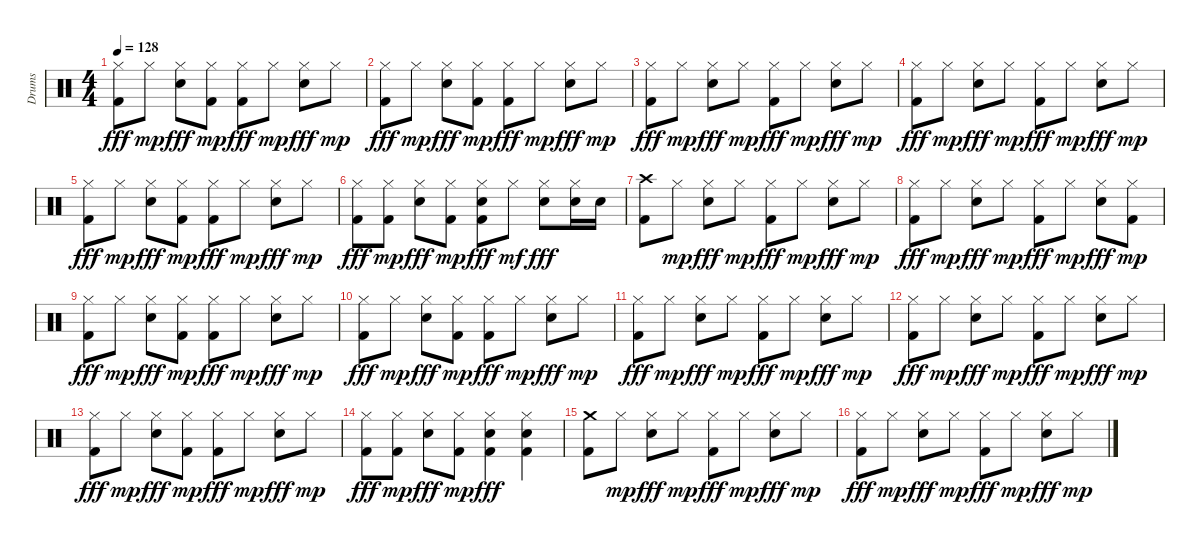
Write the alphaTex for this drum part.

\track ("Drums" "Drums") {instrument percussion}
\staff {score}
\articulation defaults
\ts (4 4)
\tempo 128
\clef neutral
\ks c
("Hi-Hat (closed)" "Kick (hit) 2").8{dy fff} "Hi-Hat (closed)".8{dy mp} ("Hi-Hat (closed)" "Snare (hit) 2").8{dy fff} ("Kick (hit) 2" "Hi-Hat (closed)").8{dy mp} ("Hi-Hat (closed)" "Kick (hit) 2").8{dy fff} "Hi-Hat (closed)".8{dy mp} ("Hi-Hat (closed)" "Snare (hit) 2").8{dy fff} "Hi-Hat (closed)".8{dy mp} |
("Hi-Hat (closed)" "Kick (hit) 2").8{dy fff} "Hi-Hat (closed)".8{dy mp} ("Hi-Hat (closed)" "Snare (hit) 2").8{dy fff} ("Kick (hit) 2" "Hi-Hat (closed)").8{dy mp} ("Hi-Hat (closed)" "Kick (hit) 2").8{dy fff} "Hi-Hat (closed)".8{dy mp} ("Hi-Hat (closed)" "Snare (hit) 2").8{dy fff} "Hi-Hat (closed)".8{dy mp} |
("Hi-Hat (closed)" "Kick (hit) 2").8{dy fff} "Hi-Hat (closed)".8{dy mp} ("Hi-Hat (closed)" "Snare (hit) 2").8{dy fff} "Hi-Hat (closed)".8{dy mp} ("Hi-Hat (closed)" "Kick (hit) 2").8{dy fff} "Hi-Hat (closed)".8{dy mp} ("Hi-Hat (closed)" "Snare (hit) 2").8{dy fff} "Hi-Hat (closed)".8{dy mp} |
("Hi-Hat (closed)" "Kick (hit) 2").8{dy fff} "Hi-Hat (closed)".8{dy mp} ("Hi-Hat (closed)" "Snare (hit) 2").8{dy fff} "Hi-Hat (closed)".8{dy mp} ("Hi-Hat (closed)" "Kick (hit) 2").8{dy fff} "Hi-Hat (closed)".8{dy mp} ("Hi-Hat (closed)" "Snare (hit) 2").8{dy fff} "Hi-Hat (closed)".8{dy mp} |
("Hi-Hat (closed)" "Kick (hit) 2").8{dy fff} "Hi-Hat (closed)".8{dy mp} ("Hi-Hat (closed)" "Snare (hit) 2").8{dy fff} ("Kick (hit) 2" "Hi-Hat (closed)").8{dy mp} ("Hi-Hat (closed)" "Kick (hit) 2").8{dy fff} "Hi-Hat (closed)".8{dy mp} ("Hi-Hat (closed)" "Snare (hit) 2").8{dy fff} "Hi-Hat (closed)".8{dy mp} |
("Hi-Hat (closed)" "Kick (hit) 2").8{dy fff} ("Kick (hit) 2" "Hi-Hat (closed)").8{dy mp} ("Hi-Hat (closed)" "Snare (hit) 2").8{dy fff} ("Kick (hit) 2" "Hi-Hat (closed)").8{dy mp} ("Hi-Hat (closed)" "Snare (hit) 2" "Kick (hit) 2").8{dy fff} "Hi-Hat (closed)".8{dy mf} ("Hi-Hat (closed)" "Snare (hit) 2").8{dy fff} ("Hi-Hat (closed)" "Snare (hit) 2").16 "Snare (hit) 2".16 |
("Crash high (hit)" "Kick (hit) 2").8 "Hi-Hat (closed)".8{dy mp} ("Hi-Hat (closed)" "Snare (hit) 2").8{dy fff} "Hi-Hat (closed)".8{dy mp} ("Hi-Hat (closed)" "Kick (hit) 2").8{dy fff} "Hi-Hat (closed)".8{dy mp} ("Hi-Hat (closed)" "Snare (hit) 2").8{dy fff} "Hi-Hat (closed)".8{dy mp} |
("Hi-Hat (closed)" "Kick (hit) 2").8{dy fff} "Hi-Hat (closed)".8{dy mp} ("Hi-Hat (closed)" "Snare (hit) 2").8{dy fff} "Hi-Hat (closed)".8{dy mp} ("Hi-Hat (closed)" "Kick (hit) 2").8{dy fff} "Hi-Hat (closed)".8{dy mp} ("Hi-Hat (closed)" "Snare (hit) 2").8{dy fff} ("Kick (hit) 2" "Hi-Hat (closed)").8{dy mp} |
("Hi-Hat (closed)" "Kick (hit) 2").8{dy fff} "Hi-Hat (closed)".8{dy mp} ("Hi-Hat (closed)" "Snare (hit) 2").8{dy fff} ("Kick (hit) 2" "Hi-Hat (closed)").8{dy mp} ("Hi-Hat (closed)" "Kick (hit) 2").8{dy fff} "Hi-Hat (closed)".8{dy mp} ("Hi-Hat (closed)" "Snare (hit) 2").8{dy fff} "Hi-Hat (closed)".8{dy mp} |
("Hi-Hat (closed)" "Kick (hit) 2").8{dy fff} "Hi-Hat (closed)".8{dy mp} ("Hi-Hat (closed)" "Snare (hit) 2").8{dy fff} ("Kick (hit) 2" "Hi-Hat (closed)").8{dy mp} ("Hi-Hat (closed)" "Kick (hit) 2").8{dy fff} "Hi-Hat (closed)".8{dy mp} ("Hi-Hat (closed)" "Snare (hit) 2").8{dy fff} "Hi-Hat (closed)".8{dy mp} |
("Hi-Hat (closed)" "Kick (hit) 2").8{dy fff} "Hi-Hat (closed)".8{dy mp} ("Hi-Hat (closed)" "Snare (hit) 2").8{dy fff} "Hi-Hat (closed)".8{dy mp} ("Hi-Hat (closed)" "Kick (hit) 2").8{dy fff} "Hi-Hat (closed)".8{dy mp} ("Hi-Hat (closed)" "Snare (hit) 2").8{dy fff} "Hi-Hat (closed)".8{dy mp} |
("Hi-Hat (closed)" "Kick (hit) 2").8{dy fff} "Hi-Hat (closed)".8{dy mp} ("Hi-Hat (closed)" "Snare (hit) 2").8{dy fff} "Hi-Hat (closed)".8{dy mp} ("Hi-Hat (closed)" "Kick (hit) 2").8{dy fff} "Hi-Hat (closed)".8{dy mp} ("Hi-Hat (closed)" "Snare (hit) 2").8{dy fff} "Hi-Hat (closed)".8{dy mp} |
("Hi-Hat (closed)" "Kick (hit) 2").8{dy fff} "Hi-Hat (closed)".8{dy mp} ("Hi-Hat (closed)" "Snare (hit) 2").8{dy fff} ("Kick (hit) 2" "Hi-Hat (closed)").8{dy mp} ("Hi-Hat (closed)" "Kick (hit) 2").8{dy fff} "Hi-Hat (closed)".8{dy mp} ("Hi-Hat (closed)" "Snare (hit) 2").8{dy fff} "Hi-Hat (closed)".8{dy mp} |
("Hi-Hat (closed)" "Kick (hit) 2").8{dy fff} ("Kick (hit) 2" "Hi-Hat (closed)").8{dy mp} ("Hi-Hat (closed)" "Snare (hit) 2").8{dy fff} ("Kick (hit) 2" "Hi-Hat (closed)").8{dy mp} ("Hi-Hat (closed)" "Snare (hit) 2" "Kick (hit) 2").4{dy fff} ("Hi-Hat (closed)" "Snare (hit) 2" "Kick (hit) 2").4 |
("Crash medium (hit)" "Kick (hit) 2").8 "Hi-Hat (closed)".8{dy mp} ("Hi-Hat (closed)" "Snare (hit) 2").8{dy fff} "Hi-Hat (closed)".8{dy mp} ("Hi-Hat (closed)" "Kick (hit) 2").8{dy fff} "Hi-Hat (closed)".8{dy mp} ("Hi-Hat (closed)" "Snare (hit) 2").8{dy fff} "Hi-Hat (closed)".8{dy mp} |
("Hi-Hat (closed)" "Kick (hit) 2").8{dy fff} "Hi-Hat (closed)".8{dy mp} ("Hi-Hat (closed)" "Snare (hit) 2").8{dy fff} "Hi-Hat (closed)".8{dy mp} ("Hi-Hat (closed)" "Kick (hit) 2").8{dy fff} "Hi-Hat (closed)".8{dy mp} ("Hi-Hat (closed)" "Snare (hit) 2").8{dy fff} "Hi-Hat (closed)".8{dy mp}
